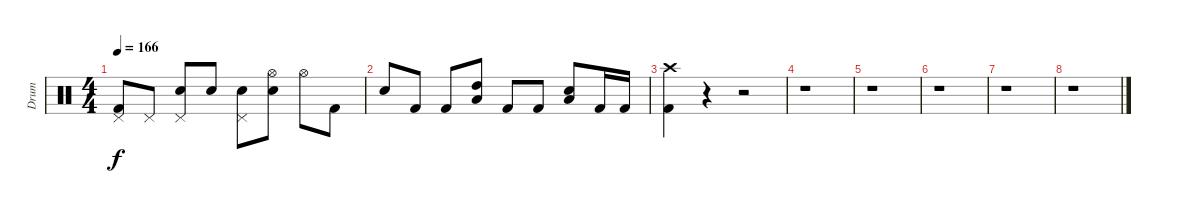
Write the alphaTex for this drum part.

\track ("Drum" "Drum") {instrument percussion}
\staff {score}
\articulation defaults
\ts (4 4)
\tempo 166
\clef neutral
\ks c
("Pedal Hi-Hat (hit)" "Kick (hit) 2").8{dy f} "Pedal Hi-Hat (hit)".8 ("Pedal Hi-Hat (hit)" "Electric Snare (hit)").8 "Electric Snare (hit)".8 ("Pedal Hi-Hat (hit)" "Electric Snare (hit)").8 ("Hi-Hat (open)" "Electric Snare (hit)").8 "Hi-Hat (open)".8 "Kick (hit) 2".8 |
"Electric Snare (hit)".8 "Kick (hit) 2".8 "Kick (hit) 2".8 ("High Tom (hit)" "Low Tom (hit)").8 "Kick (hit) 2".8 "Kick (hit) 2".8 ("Low Tom (hit)" "Electric Snare (hit)").8 "Kick (hit) 2".16 "Kick (hit) 2".16 |
("Crash high (hit)" "Kick (hit) 2").4 r.4 r.2 |
r.1 |
r.1 |
r.1 |
r.1 |
r.1
